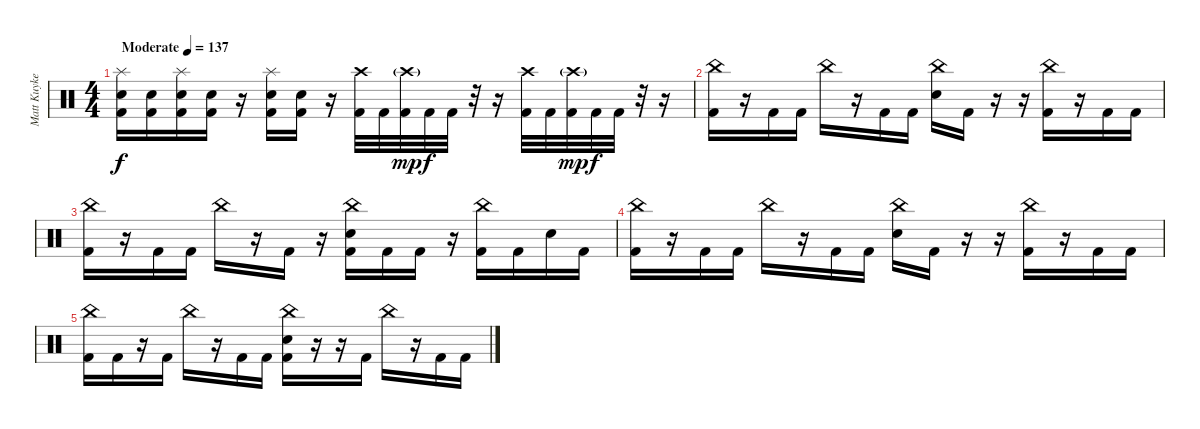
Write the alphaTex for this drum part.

\track ("Matt Kuykendall" "Matt Kuyke") {instrument percussion}
\staff {score}
\articulation defaults
\ts (4 4)
\tempo (137 "Moderate")
\clef neutral
\ks c
("Splash (hit)" "Electric Snare (hit)" "Kick (hit) 2").16{dy f} ("Electric Snare (hit)" "Kick (hit) 2").16 ("Splash (hit)" "Electric Snare (hit)" "Kick (hit) 2").16 ("Electric Snare (hit)" "Kick (hit) 2").16 r.16 ("Splash (hit)" "Electric Snare (hit)" "Kick (hit) 2").16 ("Electric Snare (hit)" "Kick (hit) 2").16 r.16 ("Crash high (hit)" "Kick (hit) 2").32 "Kick (hit) 2".32 ("Crash high (hit)"{g} "Kick (hit) 2").32{dy mp} "Kick (hit) 2".32{dy f} "Kick (hit) 2".32 r.32 r.16 ("Crash high (hit)" "Kick (hit) 2").32 "Kick (hit) 2".32 ("Crash high (hit)"{g} "Kick (hit) 2").32{dy mp} "Kick (hit) 2".32{dy f} "Kick (hit) 2".32 r.32 r.16 |
("China (hit)" "Kick (hit) 2").16 r.16 "Kick (hit) 2".16 "Kick (hit) 2".16 "China (hit)".16 r.16 "Kick (hit) 2".16 "Kick (hit) 2".16 ("China (hit)" "Electric Snare (hit)").16 "Kick (hit) 2".16 r.16 r.16 ("China (hit)" "Kick (hit) 2").16 r.16 "Kick (hit) 2".16 "Kick (hit) 2".16 |
("China (hit)" "Kick (hit) 2").16 r.16 "Kick (hit) 2".16 "Kick (hit) 2".16 "China (hit)".16 r.16 "Kick (hit) 2".16 r.16 ("China (hit)" "Electric Snare (hit)" "Kick (hit) 2").16 "Kick (hit) 2".16 "Kick (hit) 2".16 r.16 ("China (hit)" "Kick (hit) 2").16 "Kick (hit) 2".16 "Electric Snare (hit)".16 "Kick (hit) 2".16 |
("China (hit)" "Kick (hit) 2").16 r.16 "Kick (hit) 2".16 "Kick (hit) 2".16 "China (hit)".16 r.16 "Kick (hit) 2".16 "Kick (hit) 2".16 ("China (hit)" "Electric Snare (hit)").16 "Kick (hit) 2".16 r.16 r.16 ("China (hit)" "Kick (hit) 2").16 r.16 "Kick (hit) 2".16 "Kick (hit) 2".16 |
("China (hit)" "Kick (hit) 2").16 "Kick (hit) 2".16 r.16 "Kick (hit) 2".16 "China (hit)".16 r.16 "Kick (hit) 2".16 "Kick (hit) 2".16 ("China (hit)" "Electric Snare (hit)" "Kick (hit) 2").16 r.16 r.16 "Kick (hit) 2".16 "China (hit)".16 r.16 "Kick (hit) 2".16 "Kick (hit) 2".16
